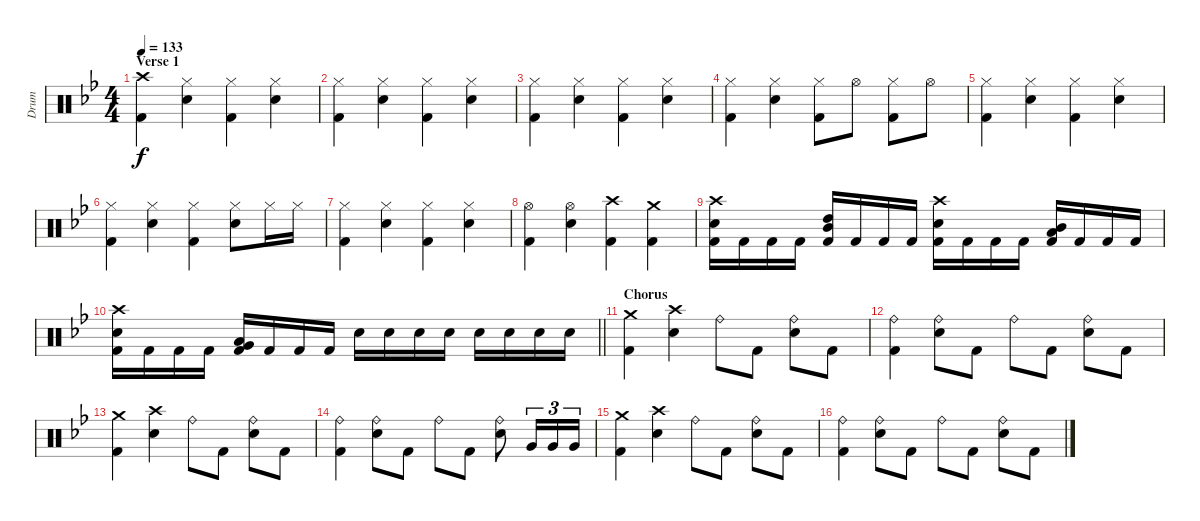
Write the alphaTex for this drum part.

\track ("Drum" "Drum") {instrument percussion}
\staff {score}
\articulation defaults
\ts (4 4)
\section ("" "Verse 1")
\tempo 133
\clef neutral
\ks bb
("Crash high (hit)" "Kick (hit) 2").4{dy f} ("Hi-Hat (closed)" "Snare (hit) 2").4 ("Hi-Hat (closed)" "Kick (hit) 2").4 ("Hi-Hat (closed)" "Snare (hit) 2").4 |
("Hi-Hat (closed)" "Kick (hit) 2").4 ("Hi-Hat (closed)" "Snare (hit) 2").4 ("Hi-Hat (closed)" "Kick (hit) 2").4 ("Hi-Hat (closed)" "Snare (hit) 2").4 |
("Hi-Hat (closed)" "Kick (hit) 2").4 ("Hi-Hat (closed)" "Snare (hit) 2").4 ("Hi-Hat (closed)" "Kick (hit) 2").4 ("Hi-Hat (closed)" "Snare (hit) 2").4 |
("Hi-Hat (closed)" "Kick (hit) 2").4 ("Hi-Hat (closed)" "Snare (hit) 2").4 ("Hi-Hat (closed)" "Kick (hit) 2").8 "Hi-Hat (open)".8 ("Hi-Hat (closed)" "Kick (hit) 2").8 "Hi-Hat (open)".8 |
("Hi-Hat (closed)" "Kick (hit) 2").4 ("Hi-Hat (closed)" "Snare (hit) 2").4 ("Hi-Hat (closed)" "Kick (hit) 2").4 ("Hi-Hat (closed)" "Snare (hit) 2").4 |
("Hi-Hat (closed)" "Kick (hit) 2").4 ("Hi-Hat (closed)" "Snare (hit) 2").4 ("Hi-Hat (closed)" "Kick (hit) 2").4 ("Hi-Hat (closed)" "Snare (hit) 2").8 "Hi-Hat (closed)".16 "Hi-Hat (closed)".16 |
("Hi-Hat (closed)" "Kick (hit) 2").4 ("Hi-Hat (closed)" "Snare (hit) 2").4 ("Hi-Hat (closed)" "Kick (hit) 2").4 ("Hi-Hat (closed)" "Snare (hit) 2").4 |
("Hi-Hat (open)" "Kick (hit) 2").4 ("Hi-Hat (open)" "Snare (hit) 2").4 ("Crash high (hit)" "Kick (hit) 2").4 ("Crash medium (hit)" "Kick (hit) 2").4 |
("Crash high (hit)" "Snare (hit) 2" "Kick (hit) 2").16 "Kick (hit) 2".16 "Kick (hit) 2".16 "Kick (hit) 2".16 ("High Tom (hit)" "Mid Tom (hit)" "Kick (hit) 2").16 "Kick (hit) 2".16 "Kick (hit) 2".16 "Kick (hit) 2".16 ("Crash high (hit)" "Snare (hit) 2" "Kick (hit) 2").16 "Kick (hit) 2".16 "Kick (hit) 2".16 "Kick (hit) 2".16 ("Mid Tom (hit)" "Low Tom (hit)" "Kick (hit) 2").16 "Kick (hit) 2".16 "Kick (hit) 2".16 "Kick (hit) 2".16 |
\barLineRight lightlight
("Crash high (hit)" "Snare (hit) 2" "Kick (hit) 2").16 "Kick (hit) 2".16 "Kick (hit) 2".16 "Kick (hit) 2".16 ("Low Tom (hit)" "Very Low Tom (hit)" "Kick (hit) 2").16 "Kick (hit) 2".16 "Kick (hit) 2".16 "Kick (hit) 2".16 "Snare (hit) 2".16 "Snare (hit) 2".16 "Snare (hit) 2".16 "Snare (hit) 2".16 "Snare (hit) 2".16 "Snare (hit) 2".16 "Snare (hit) 2".16 "Snare (hit) 2".16 |
\section ("" "Chorus")
("Crash medium (hit)" "Kick (hit) 2").4 ("Crash high (hit)" "Snare (hit) 2").4 "Ride (bell)".8 "Kick (hit) 2".8 ("Ride (bell)" "Snare (hit) 2").8 "Kick (hit) 2".8 |
("Ride (bell)" "Kick (hit) 2").4 ("Ride (bell)" "Snare (hit) 2").8 "Kick (hit) 2".8 "Ride (bell)".8 "Kick (hit) 2".8 ("Ride (bell)" "Snare (hit) 2").8 "Kick (hit) 2".8 |
("Crash medium (hit)" "Kick (hit) 2").4 ("Crash high (hit)" "Snare (hit) 2").4 "Ride (bell)".8 "Kick (hit) 2".8 ("Ride (bell)" "Snare (hit) 2").8 "Kick (hit) 2".8 |
("Ride (bell)" "Kick (hit) 2").4 ("Ride (bell)" "Snare (hit) 2").8 "Kick (hit) 2".8 "Ride (bell)".8 "Kick (hit) 2".8 ("Ride (bell)" "Snare (hit) 2").8 "Very Low Tom (hit)".16{tu (3 2)} "Very Low Tom (hit)".16{tu (3 2)} "Very Low Tom (hit)".16{tu (3 2)} |
("Crash medium (hit)" "Kick (hit) 2").4 ("Crash high (hit)" "Snare (hit) 2").4 "Ride (bell)".8 "Kick (hit) 2".8 ("Ride (bell)" "Snare (hit) 2").8 "Kick (hit) 2".8 |
("Ride (bell)" "Kick (hit) 2").4 ("Ride (bell)" "Snare (hit) 2").8 "Kick (hit) 2".8 "Ride (bell)".8 "Kick (hit) 2".8 ("Ride (bell)" "Snare (hit) 2").8 "Kick (hit) 2".8
